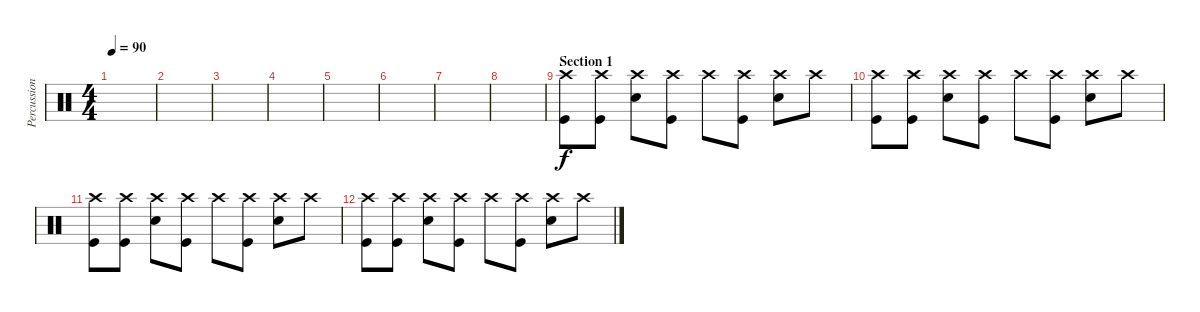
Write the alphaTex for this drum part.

\track ("Percussions" "Percussion") {instrument percussion}
\staff {score}
\articulation defaults
\ts (4 4)
\tempo 90
\clef neutral
\ks c
|
|
|
|
|
|
|
|
\section ("" "Section 1")
("Crash high (hit)" "Kick (hit)").8 ("Crash high (hit)" "Kick (hit)").8 ("Crash high (hit)" "Electric Snare (hit)").8 ("Crash high (hit)" "Kick (hit)").8 "Crash high (hit)".8 ("Crash high (hit)" "Kick (hit)").8 ("Crash high (hit)" "Electric Snare (hit)").8 "Crash high (hit)".8 |
("Crash high (hit)" "Kick (hit)").8 ("Crash high (hit)" "Kick (hit)").8 ("Crash high (hit)" "Electric Snare (hit)").8 ("Crash high (hit)" "Kick (hit)").8 "Crash high (hit)".8 ("Crash high (hit)" "Kick (hit)").8 ("Crash high (hit)" "Electric Snare (hit)").8 "Crash high (hit)".8 |
("Crash high (hit)" "Kick (hit)").8 ("Crash high (hit)" "Kick (hit)").8 ("Crash high (hit)" "Electric Snare (hit)").8 ("Crash high (hit)" "Kick (hit)").8 "Crash high (hit)".8 ("Crash high (hit)" "Kick (hit)").8 ("Crash high (hit)" "Electric Snare (hit)").8 "Crash high (hit)".8 |
("Crash high (hit)" "Kick (hit)").8 ("Crash high (hit)" "Kick (hit)").8 ("Crash high (hit)" "Electric Snare (hit)").8 ("Crash high (hit)" "Kick (hit)").8 "Crash high (hit)".8 ("Crash high (hit)" "Kick (hit)").8 ("Crash high (hit)" "Electric Snare (hit)").8 "Crash high (hit)".8
